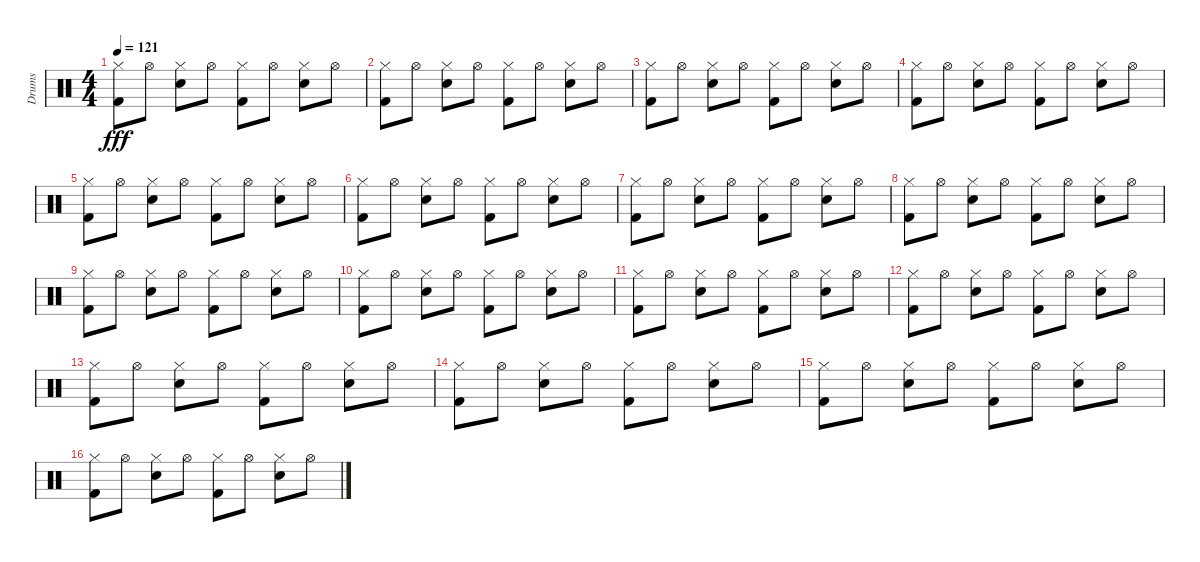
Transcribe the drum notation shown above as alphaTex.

\track ("Drums" "Drums") {instrument percussion}
\staff {score}
\articulation defaults
\ts (4 4)
\tempo 121
\clef neutral
\ks c
("Hi-Hat (closed)" "Kick (hit) 2").8{dy fff} "Hi-Hat (open)".8 ("Hi-Hat (closed)" "Snare (hit) 2").8 "Hi-Hat (open)".8 ("Hi-Hat (closed)" "Kick (hit) 2").8 "Hi-Hat (open)".8 ("Hi-Hat (closed)" "Snare (hit) 2").8 "Hi-Hat (open)".8 |
("Hi-Hat (closed)" "Kick (hit) 2").8 "Hi-Hat (open)".8 ("Hi-Hat (closed)" "Snare (hit) 2").8 "Hi-Hat (open)".8 ("Hi-Hat (closed)" "Kick (hit) 2").8 "Hi-Hat (open)".8 ("Hi-Hat (closed)" "Snare (hit) 2").8 "Hi-Hat (open)".8 |
("Hi-Hat (closed)" "Kick (hit) 2").8 "Hi-Hat (open)".8 ("Hi-Hat (closed)" "Snare (hit) 2").8 "Hi-Hat (open)".8 ("Hi-Hat (closed)" "Kick (hit) 2").8 "Hi-Hat (open)".8 ("Hi-Hat (closed)" "Snare (hit) 2").8 "Hi-Hat (open)".8 |
("Hi-Hat (closed)" "Kick (hit) 2").8 "Hi-Hat (open)".8 ("Hi-Hat (closed)" "Snare (hit) 2").8 "Hi-Hat (open)".8 ("Hi-Hat (closed)" "Kick (hit) 2").8 "Hi-Hat (open)".8 ("Hi-Hat (closed)" "Snare (hit) 2").8 "Hi-Hat (open)".8 |
("Hi-Hat (closed)" "Kick (hit) 2").8 "Hi-Hat (open)".8 ("Hi-Hat (closed)" "Snare (hit) 2").8 "Hi-Hat (open)".8 ("Hi-Hat (closed)" "Kick (hit) 2").8 "Hi-Hat (open)".8 ("Hi-Hat (closed)" "Snare (hit) 2").8 "Hi-Hat (open)".8 |
("Hi-Hat (closed)" "Kick (hit) 2").8 "Hi-Hat (open)".8 ("Hi-Hat (closed)" "Snare (hit) 2").8 "Hi-Hat (open)".8 ("Hi-Hat (closed)" "Kick (hit) 2").8 "Hi-Hat (open)".8 ("Hi-Hat (closed)" "Snare (hit) 2").8 "Hi-Hat (open)".8 |
("Hi-Hat (closed)" "Kick (hit) 2").8 "Hi-Hat (open)".8 ("Hi-Hat (closed)" "Snare (hit) 2").8 "Hi-Hat (open)".8 ("Hi-Hat (closed)" "Kick (hit) 2").8 "Hi-Hat (open)".8 ("Hi-Hat (closed)" "Snare (hit) 2").8 "Hi-Hat (open)".8 |
("Hi-Hat (closed)" "Kick (hit) 2").8 "Hi-Hat (open)".8 ("Hi-Hat (closed)" "Snare (hit) 2").8 "Hi-Hat (open)".8 ("Hi-Hat (closed)" "Kick (hit) 2").8 "Hi-Hat (open)".8 ("Hi-Hat (closed)" "Snare (hit) 2").8 "Hi-Hat (open)".8 |
("Hi-Hat (closed)" "Kick (hit) 2").8 "Hi-Hat (open)".8 ("Hi-Hat (closed)" "Snare (hit) 2").8 "Hi-Hat (open)".8 ("Hi-Hat (closed)" "Kick (hit) 2").8 "Hi-Hat (open)".8 ("Hi-Hat (closed)" "Snare (hit) 2").8 "Hi-Hat (open)".8 |
("Hi-Hat (closed)" "Kick (hit) 2").8 "Hi-Hat (open)".8 ("Hi-Hat (closed)" "Snare (hit) 2").8 "Hi-Hat (open)".8 ("Hi-Hat (closed)" "Kick (hit) 2").8 "Hi-Hat (open)".8 ("Hi-Hat (closed)" "Snare (hit) 2").8 "Hi-Hat (open)".8 |
("Hi-Hat (closed)" "Kick (hit) 2").8 "Hi-Hat (open)".8 ("Hi-Hat (closed)" "Snare (hit) 2").8 "Hi-Hat (open)".8 ("Hi-Hat (closed)" "Kick (hit) 2").8 "Hi-Hat (open)".8 ("Hi-Hat (closed)" "Snare (hit) 2").8 "Hi-Hat (open)".8 |
("Hi-Hat (closed)" "Kick (hit) 2").8 "Hi-Hat (open)".8 ("Hi-Hat (closed)" "Snare (hit) 2").8 "Hi-Hat (open)".8 ("Hi-Hat (closed)" "Kick (hit) 2").8 "Hi-Hat (open)".8 ("Hi-Hat (closed)" "Snare (hit) 2").8 "Hi-Hat (open)".8 |
("Hi-Hat (closed)" "Kick (hit) 2").8 "Hi-Hat (open)".8 ("Hi-Hat (closed)" "Snare (hit) 2").8 "Hi-Hat (open)".8 ("Hi-Hat (closed)" "Kick (hit) 2").8 "Hi-Hat (open)".8 ("Hi-Hat (closed)" "Snare (hit) 2").8 "Hi-Hat (open)".8 |
("Hi-Hat (closed)" "Kick (hit) 2").8 "Hi-Hat (open)".8 ("Hi-Hat (closed)" "Snare (hit) 2").8 "Hi-Hat (open)".8 ("Hi-Hat (closed)" "Kick (hit) 2").8 "Hi-Hat (open)".8 ("Hi-Hat (closed)" "Snare (hit) 2").8 "Hi-Hat (open)".8 |
("Hi-Hat (closed)" "Kick (hit) 2").8 "Hi-Hat (open)".8 ("Hi-Hat (closed)" "Snare (hit) 2").8 "Hi-Hat (open)".8 ("Hi-Hat (closed)" "Kick (hit) 2").8 "Hi-Hat (open)".8 ("Hi-Hat (closed)" "Snare (hit) 2").8 "Hi-Hat (open)".8 |
("Hi-Hat (closed)" "Kick (hit) 2").8 "Hi-Hat (open)".8 ("Hi-Hat (closed)" "Snare (hit) 2").8 "Hi-Hat (open)".8 ("Hi-Hat (closed)" "Kick (hit) 2").8 "Hi-Hat (open)".8 ("Hi-Hat (closed)" "Snare (hit) 2").8 "Hi-Hat (open)".8
